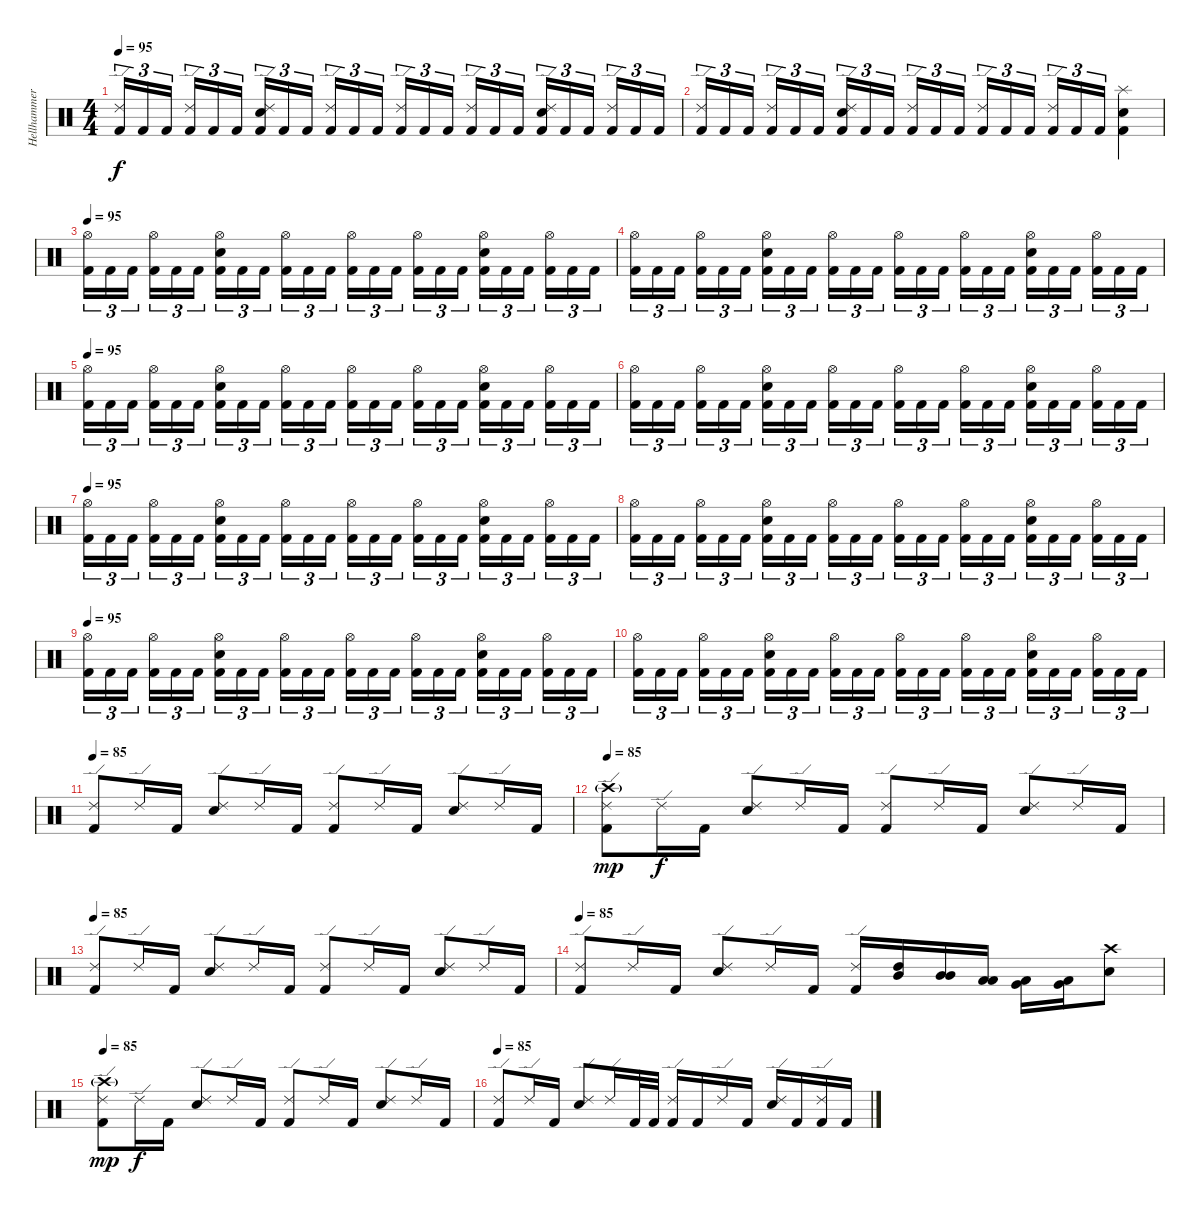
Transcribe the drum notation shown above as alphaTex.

\track ("Hellhammer" "Hellhammer") {instrument percussion}
\staff {score}
\articulation defaults
\ts (4 4)
\tempo 95
\tempo 100
\tempo 95
\clef neutral
\ks c
("Kick (hit) 2" "Ride (edge) 2").16{tu (3 2) dy f} "Kick (hit) 2".16{tu (3 2)} "Kick (hit) 2".16{tu (3 2)} ("Kick (hit) 2" "Ride (edge) 2").16{tu (3 2)} "Kick (hit) 2".16{tu (3 2)} "Kick (hit) 2".16{tu (3 2)} ("Kick (hit) 2" "Electric Snare (hit)" "Ride (edge) 2").16{tu (3 2)} "Kick (hit) 2".16{tu (3 2)} "Kick (hit) 2".16{tu (3 2)} ("Kick (hit) 2" "Ride (edge) 2").16{tu (3 2)} "Kick (hit) 2".16{tu (3 2)} "Kick (hit) 2".16{tu (3 2)} ("Kick (hit) 2" "Ride (edge) 2").16{tu (3 2)} "Kick (hit) 2".16{tu (3 2)} "Kick (hit) 2".16{tu (3 2)} ("Kick (hit) 2" "Ride (edge) 2").16{tu (3 2)} "Kick (hit) 2".16{tu (3 2)} "Kick (hit) 2".16{tu (3 2)} ("Kick (hit) 2" "Electric Snare (hit)" "Ride (edge) 2").16{tu (3 2)} "Kick (hit) 2".16{tu (3 2)} "Kick (hit) 2".16{tu (3 2)} ("Kick (hit) 2" "Ride (edge) 2").16{tu (3 2)} "Kick (hit) 2".16{tu (3 2)} "Kick (hit) 2".16{tu (3 2)} |
("Kick (hit) 2" "Ride (edge) 2").16{tu (3 2)} "Kick (hit) 2".16{tu (3 2)} "Kick (hit) 2".16{tu (3 2)} ("Kick (hit) 2" "Ride (edge) 2").16{tu (3 2)} "Kick (hit) 2".16{tu (3 2)} "Kick (hit) 2".16{tu (3 2)} ("Kick (hit) 2" "Electric Snare (hit)" "Ride (edge) 2").16{tu (3 2)} "Kick (hit) 2".16{tu (3 2)} "Kick (hit) 2".16{tu (3 2)} ("Kick (hit) 2" "Ride (edge) 2").16{tu (3 2)} "Kick (hit) 2".16{tu (3 2)} "Kick (hit) 2".16{tu (3 2)} ("Kick (hit) 2" "Ride (edge) 2").16{tu (3 2)} "Kick (hit) 2".16{tu (3 2)} "Kick (hit) 2".16{tu (3 2)} ("Kick (hit) 2" "Ride (edge) 2").16{tu (3 2)} "Kick (hit) 2".16{tu (3 2)} "Kick (hit) 2".16{tu (3 2)} ("Kick (hit) 2" "Electric Snare (hit)" "Splash (hit)").4 |
\tempo 95
("Kick (hit) 2" "Hi-Hat (open)").16{tu (3 2)} "Kick (hit) 2".16{tu (3 2)} "Kick (hit) 2".16{tu (3 2)} ("Kick (hit) 2" "Hi-Hat (open)").16{tu (3 2)} "Kick (hit) 2".16{tu (3 2)} "Kick (hit) 2".16{tu (3 2)} ("Kick (hit) 2" "Electric Snare (hit)" "Hi-Hat (open)").16{tu (3 2)} "Kick (hit) 2".16{tu (3 2)} "Kick (hit) 2".16{tu (3 2)} ("Kick (hit) 2" "Hi-Hat (open)").16{tu (3 2)} "Kick (hit) 2".16{tu (3 2)} "Kick (hit) 2".16{tu (3 2)} ("Kick (hit) 2" "Hi-Hat (open)").16{tu (3 2)} "Kick (hit) 2".16{tu (3 2)} "Kick (hit) 2".16{tu (3 2)} ("Kick (hit) 2" "Hi-Hat (open)").16{tu (3 2)} "Kick (hit) 2".16{tu (3 2)} "Kick (hit) 2".16{tu (3 2)} ("Kick (hit) 2" "Electric Snare (hit)" "Hi-Hat (open)").16{tu (3 2)} "Kick (hit) 2".16{tu (3 2)} "Kick (hit) 2".16{tu (3 2)} ("Kick (hit) 2" "Hi-Hat (open)").16{tu (3 2)} "Kick (hit) 2".16{tu (3 2)} "Kick (hit) 2".16{tu (3 2)} |
("Kick (hit) 2" "Hi-Hat (open)").16{tu (3 2)} "Kick (hit) 2".16{tu (3 2)} "Kick (hit) 2".16{tu (3 2)} ("Kick (hit) 2" "Hi-Hat (open)").16{tu (3 2)} "Kick (hit) 2".16{tu (3 2)} "Kick (hit) 2".16{tu (3 2)} ("Kick (hit) 2" "Electric Snare (hit)" "Hi-Hat (open)").16{tu (3 2)} "Kick (hit) 2".16{tu (3 2)} "Kick (hit) 2".16{tu (3 2)} ("Kick (hit) 2" "Hi-Hat (open)").16{tu (3 2)} "Kick (hit) 2".16{tu (3 2)} "Kick (hit) 2".16{tu (3 2)} ("Kick (hit) 2" "Hi-Hat (open)").16{tu (3 2)} "Kick (hit) 2".16{tu (3 2)} "Kick (hit) 2".16{tu (3 2)} ("Kick (hit) 2" "Hi-Hat (open)").16{tu (3 2)} "Kick (hit) 2".16{tu (3 2)} "Kick (hit) 2".16{tu (3 2)} ("Kick (hit) 2" "Electric Snare (hit)" "Hi-Hat (open)").16{tu (3 2)} "Kick (hit) 2".16{tu (3 2)} "Kick (hit) 2".16{tu (3 2)} ("Kick (hit) 2" "Hi-Hat (open)").16{tu (3 2)} "Kick (hit) 2".16{tu (3 2)} "Kick (hit) 2".16{tu (3 2)} |
\tempo 95
("Kick (hit) 2" "Hi-Hat (open)").16{tu (3 2)} "Kick (hit) 2".16{tu (3 2)} "Kick (hit) 2".16{tu (3 2)} ("Kick (hit) 2" "Hi-Hat (open)").16{tu (3 2)} "Kick (hit) 2".16{tu (3 2)} "Kick (hit) 2".16{tu (3 2)} ("Kick (hit) 2" "Electric Snare (hit)" "Hi-Hat (open)").16{tu (3 2)} "Kick (hit) 2".16{tu (3 2)} "Kick (hit) 2".16{tu (3 2)} ("Kick (hit) 2" "Hi-Hat (open)").16{tu (3 2)} "Kick (hit) 2".16{tu (3 2)} "Kick (hit) 2".16{tu (3 2)} ("Kick (hit) 2" "Hi-Hat (open)").16{tu (3 2)} "Kick (hit) 2".16{tu (3 2)} "Kick (hit) 2".16{tu (3 2)} ("Kick (hit) 2" "Hi-Hat (open)").16{tu (3 2)} "Kick (hit) 2".16{tu (3 2)} "Kick (hit) 2".16{tu (3 2)} ("Kick (hit) 2" "Electric Snare (hit)" "Hi-Hat (open)").16{tu (3 2)} "Kick (hit) 2".16{tu (3 2)} "Kick (hit) 2".16{tu (3 2)} ("Kick (hit) 2" "Hi-Hat (open)").16{tu (3 2)} "Kick (hit) 2".16{tu (3 2)} "Kick (hit) 2".16{tu (3 2)} |
("Kick (hit) 2" "Hi-Hat (open)").16{tu (3 2)} "Kick (hit) 2".16{tu (3 2)} "Kick (hit) 2".16{tu (3 2)} ("Kick (hit) 2" "Hi-Hat (open)").16{tu (3 2)} "Kick (hit) 2".16{tu (3 2)} "Kick (hit) 2".16{tu (3 2)} ("Kick (hit) 2" "Electric Snare (hit)" "Hi-Hat (open)").16{tu (3 2)} "Kick (hit) 2".16{tu (3 2)} "Kick (hit) 2".16{tu (3 2)} ("Kick (hit) 2" "Hi-Hat (open)").16{tu (3 2)} "Kick (hit) 2".16{tu (3 2)} "Kick (hit) 2".16{tu (3 2)} ("Kick (hit) 2" "Hi-Hat (open)").16{tu (3 2)} "Kick (hit) 2".16{tu (3 2)} "Kick (hit) 2".16{tu (3 2)} ("Kick (hit) 2" "Hi-Hat (open)").16{tu (3 2)} "Kick (hit) 2".16{tu (3 2)} "Kick (hit) 2".16{tu (3 2)} ("Kick (hit) 2" "Electric Snare (hit)" "Hi-Hat (open)").16{tu (3 2)} "Kick (hit) 2".16{tu (3 2)} "Kick (hit) 2".16{tu (3 2)} ("Kick (hit) 2" "Hi-Hat (open)").16{tu (3 2)} "Kick (hit) 2".16{tu (3 2)} "Kick (hit) 2".16{tu (3 2)} |
\tempo 95
("Kick (hit) 2" "Hi-Hat (open)").16{tu (3 2)} "Kick (hit) 2".16{tu (3 2)} "Kick (hit) 2".16{tu (3 2)} ("Kick (hit) 2" "Hi-Hat (open)").16{tu (3 2)} "Kick (hit) 2".16{tu (3 2)} "Kick (hit) 2".16{tu (3 2)} ("Kick (hit) 2" "Electric Snare (hit)" "Hi-Hat (open)").16{tu (3 2)} "Kick (hit) 2".16{tu (3 2)} "Kick (hit) 2".16{tu (3 2)} ("Kick (hit) 2" "Hi-Hat (open)").16{tu (3 2)} "Kick (hit) 2".16{tu (3 2)} "Kick (hit) 2".16{tu (3 2)} ("Kick (hit) 2" "Hi-Hat (open)").16{tu (3 2)} "Kick (hit) 2".16{tu (3 2)} "Kick (hit) 2".16{tu (3 2)} ("Kick (hit) 2" "Hi-Hat (open)").16{tu (3 2)} "Kick (hit) 2".16{tu (3 2)} "Kick (hit) 2".16{tu (3 2)} ("Kick (hit) 2" "Electric Snare (hit)" "Hi-Hat (open)").16{tu (3 2)} "Kick (hit) 2".16{tu (3 2)} "Kick (hit) 2".16{tu (3 2)} ("Kick (hit) 2" "Hi-Hat (open)").16{tu (3 2)} "Kick (hit) 2".16{tu (3 2)} "Kick (hit) 2".16{tu (3 2)} |
("Kick (hit) 2" "Hi-Hat (open)").16{tu (3 2)} "Kick (hit) 2".16{tu (3 2)} "Kick (hit) 2".16{tu (3 2)} ("Kick (hit) 2" "Hi-Hat (open)").16{tu (3 2)} "Kick (hit) 2".16{tu (3 2)} "Kick (hit) 2".16{tu (3 2)} ("Kick (hit) 2" "Electric Snare (hit)" "Hi-Hat (open)").16{tu (3 2)} "Kick (hit) 2".16{tu (3 2)} "Kick (hit) 2".16{tu (3 2)} ("Kick (hit) 2" "Hi-Hat (open)").16{tu (3 2)} "Kick (hit) 2".16{tu (3 2)} "Kick (hit) 2".16{tu (3 2)} ("Kick (hit) 2" "Hi-Hat (open)").16{tu (3 2)} "Kick (hit) 2".16{tu (3 2)} "Kick (hit) 2".16{tu (3 2)} ("Kick (hit) 2" "Hi-Hat (open)").16{tu (3 2)} "Kick (hit) 2".16{tu (3 2)} "Kick (hit) 2".16{tu (3 2)} ("Kick (hit) 2" "Electric Snare (hit)" "Hi-Hat (open)").16{tu (3 2)} "Kick (hit) 2".16{tu (3 2)} "Kick (hit) 2".16{tu (3 2)} ("Kick (hit) 2" "Hi-Hat (open)").16{tu (3 2)} "Kick (hit) 2".16{tu (3 2)} "Kick (hit) 2".16{tu (3 2)} |
\tempo 95
("Kick (hit) 2" "Hi-Hat (open)").16{tu (3 2)} "Kick (hit) 2".16{tu (3 2)} "Kick (hit) 2".16{tu (3 2)} ("Kick (hit) 2" "Hi-Hat (open)").16{tu (3 2)} "Kick (hit) 2".16{tu (3 2)} "Kick (hit) 2".16{tu (3 2)} ("Kick (hit) 2" "Electric Snare (hit)" "Hi-Hat (open)").16{tu (3 2)} "Kick (hit) 2".16{tu (3 2)} "Kick (hit) 2".16{tu (3 2)} ("Kick (hit) 2" "Hi-Hat (open)").16{tu (3 2)} "Kick (hit) 2".16{tu (3 2)} "Kick (hit) 2".16{tu (3 2)} ("Kick (hit) 2" "Hi-Hat (open)").16{tu (3 2)} "Kick (hit) 2".16{tu (3 2)} "Kick (hit) 2".16{tu (3 2)} ("Kick (hit) 2" "Hi-Hat (open)").16{tu (3 2)} "Kick (hit) 2".16{tu (3 2)} "Kick (hit) 2".16{tu (3 2)} ("Kick (hit) 2" "Electric Snare (hit)" "Hi-Hat (open)").16{tu (3 2)} "Kick (hit) 2".16{tu (3 2)} "Kick (hit) 2".16{tu (3 2)} ("Kick (hit) 2" "Hi-Hat (open)").16{tu (3 2)} "Kick (hit) 2".16{tu (3 2)} "Kick (hit) 2".16{tu (3 2)} |
("Kick (hit) 2" "Hi-Hat (open)").16{tu (3 2)} "Kick (hit) 2".16{tu (3 2)} "Kick (hit) 2".16{tu (3 2)} ("Kick (hit) 2" "Hi-Hat (open)").16{tu (3 2)} "Kick (hit) 2".16{tu (3 2)} "Kick (hit) 2".16{tu (3 2)} ("Kick (hit) 2" "Electric Snare (hit)" "Hi-Hat (open)").16{tu (3 2)} "Kick (hit) 2".16{tu (3 2)} "Kick (hit) 2".16{tu (3 2)} ("Kick (hit) 2" "Hi-Hat (open)").16{tu (3 2)} "Kick (hit) 2".16{tu (3 2)} "Kick (hit) 2".16{tu (3 2)} ("Kick (hit) 2" "Hi-Hat (open)").16{tu (3 2)} "Kick (hit) 2".16{tu (3 2)} "Kick (hit) 2".16{tu (3 2)} ("Kick (hit) 2" "Hi-Hat (open)").16{tu (3 2)} "Kick (hit) 2".16{tu (3 2)} "Kick (hit) 2".16{tu (3 2)} ("Kick (hit) 2" "Electric Snare (hit)" "Hi-Hat (open)").16{tu (3 2)} "Kick (hit) 2".16{tu (3 2)} "Kick (hit) 2".16{tu (3 2)} ("Kick (hit) 2" "Hi-Hat (open)").16{tu (3 2)} "Kick (hit) 2".16{tu (3 2)} "Kick (hit) 2".16{tu (3 2)} |
\tempo 85
("Kick (hit) 2" "Ride (edge) 2").8 "Ride (edge) 2".16 "Kick (hit) 2".16 ("Electric Snare (hit)" "Ride (edge) 2").8 "Ride (edge) 2".16 "Kick (hit) 2".16 ("Kick (hit) 2" "Ride (edge) 2").8 "Ride (edge) 2".16 "Kick (hit) 2".16 ("Electric Snare (hit)" "Ride (edge) 2").8 "Ride (edge) 2".16 "Kick (hit) 2".16 |
\tempo 85
("Kick (hit) 2" "Ride (edge) 2" "Crash high (hit)"{g}).8{dy mp} "Ride (edge) 2".16{dy f} "Kick (hit) 2".16 ("Electric Snare (hit)" "Ride (edge) 2").8 "Ride (edge) 2".16 "Kick (hit) 2".16 ("Kick (hit) 2" "Ride (edge) 2").8 "Ride (edge) 2".16 "Kick (hit) 2".16 ("Electric Snare (hit)" "Ride (edge) 2").8 "Ride (edge) 2".16 "Kick (hit) 2".16 |
\tempo 85
("Kick (hit) 2" "Ride (edge) 2").8 "Ride (edge) 2".16 "Kick (hit) 2".16 ("Electric Snare (hit)" "Ride (edge) 2").8 "Ride (edge) 2".16 "Kick (hit) 2".16 ("Kick (hit) 2" "Ride (edge) 2").8 "Ride (edge) 2".16 "Kick (hit) 2".16 ("Electric Snare (hit)" "Ride (edge) 2").8 "Ride (edge) 2".16 "Kick (hit) 2".16 |
\tempo 85
("Kick (hit) 2" "Ride (edge) 2").8 "Ride (edge) 2".16 "Kick (hit) 2".16 ("Electric Snare (hit)" "Ride (edge) 2").8 "Ride (edge) 2".16 "Kick (hit) 2".16 ("Kick (hit) 2" "Ride (edge) 2").16 ("Mid Tom (hit)" "High Tom (hit)").16 ("Mid Tom (hit)" "Mid Tom (hit)").16 ("Low Tom (hit)" "Low Tom (hit)").16 ("Low Tom (hit)" "Very Low Tom (hit)").16 ("Very Low Tom (hit)" "Low Floor Tom (hit)").16 ("Electric Snare (hit)" "Crash high (hit)").8 |
\tempo 85
("Kick (hit) 2" "Ride (edge) 2" "Crash high (hit)"{g}).8{dy mp} "Ride (edge) 2".16{dy f} "Kick (hit) 2".16 ("Electric Snare (hit)" "Ride (edge) 2").8 "Ride (edge) 2".16 "Kick (hit) 2".16 ("Kick (hit) 2" "Ride (edge) 2").8 "Ride (edge) 2".16 "Kick (hit) 2".16 ("Electric Snare (hit)" "Ride (edge) 2").8 "Ride (edge) 2".16 "Kick (hit) 2".16 |
\tempo 85
("Kick (hit) 2" "Ride (edge) 2").8 "Ride (edge) 2".16 "Kick (hit) 2".16 ("Electric Snare (hit)" "Ride (edge) 2").8 "Ride (edge) 2".16 "Kick (hit) 2".32 "Kick (hit) 2".32 ("Kick (hit) 2" "Ride (edge) 2").16 "Kick (hit) 2".16 "Ride (edge) 2".16 "Kick (hit) 2".16 ("Electric Snare (hit)" "Ride (edge) 2").16 "Kick (hit) 2".16 ("Kick (hit) 2" "Ride (edge) 2").16 "Kick (hit) 2".16
